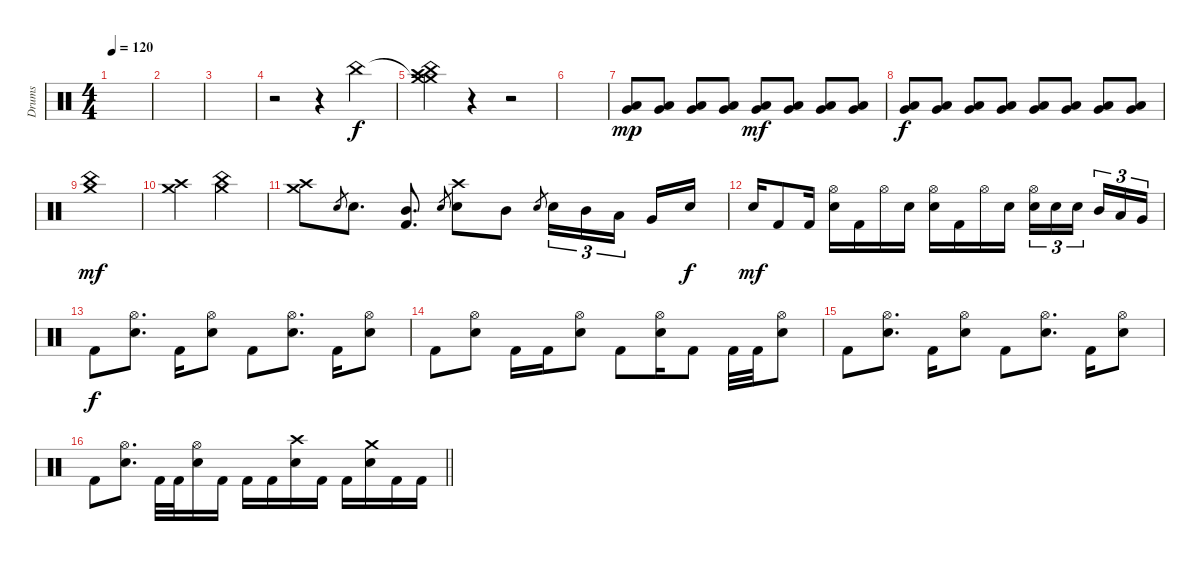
\track ("Drums" "Drums") {instrument percussion}
\staff {score}
\articulation defaults
\ts (4 4)
\tempo 120
\clef neutral
\ks c
|
|
|
r.2 r.4 "China (hit)".4 |
("Crash medium (hit)"{t} "Crash medium (hit)" "Crash high (hit)" "China (hit)").4 r.4 r.2 |
|
("Low Tom (hit)" "Very Low Tom (hit)").8{dy mp} ("Low Tom (hit)" "Very Low Tom (hit)").8 ("Low Tom (hit)" "Very Low Tom (hit)").8 ("Low Tom (hit)" "Very Low Tom (hit)").8 ("Low Tom (hit)" "Very Low Tom (hit)").8{dy mf} ("Low Tom (hit)" "Very Low Tom (hit)").8 ("Low Tom (hit)" "Very Low Tom (hit)").8 ("Low Tom (hit)" "Very Low Tom (hit)").8 |
("Low Tom (hit)" "Very Low Tom (hit)").8{dy f} ("Low Tom (hit)" "Very Low Tom (hit)").8 ("Low Tom (hit)" "Very Low Tom (hit)").8 ("Low Tom (hit)" "Very Low Tom (hit)").8 ("Low Tom (hit)" "Very Low Tom (hit)").8 ("Low Tom (hit)" "Very Low Tom (hit)").8 ("Low Tom (hit)" "Very Low Tom (hit)").8 ("Low Tom (hit)" "Very Low Tom (hit)").8 |
("Crash medium (hit)" "China (hit)").1{dy mf} |
("Crash medium (hit)" "Crash high (hit)").2 ("China (hit)" "Crash medium (hit)").2 |
("Crash high (hit)" "Crash medium (hit)").8 "Electric Snare (hit)".8{gr} "Electric Snare (hit)".8{d} ("Mid Tom (hit)" "Kick (hit) 2").8{d} "Electric Snare (hit)".8{gr} ("Crash high (hit)" "Electric Snare (hit)").8 "Mid Tom (hit)".8 "Electric Snare (hit)".8{gr} "Electric Snare (hit)".16{tu (3 2)} "Mid Tom (hit)".16{tu (3 2)} "Low Tom (hit)".16{tu (3 2) beam splitsecondary} "Very Low Tom (hit)".16 "Electric Snare (hit)".16{dy f} |
"Electric Snare (hit)".16{dy mf} "Kick (hit) 2".8 "Kick (hit) 2".16 ("Hi-Hat (open)" "Electric Snare (hit)").16 "Kick (hit) 2".16 "Hi-Hat (open)".16 "Electric Snare (hit)".16 ("Hi-Hat (open)" "Electric Snare (hit)").16 "Kick (hit) 2".16 "Hi-Hat (open)".16 "Electric Snare (hit)".16 ("Hi-Hat (open)" "Electric Snare (hit)").16{tu (3 2)} "Electric Snare (hit)".16{tu (3 2)} "Electric Snare (hit)".16{tu (3 2) beam splitsecondary} "Mid Tom (hit)".16{tu (3 2)} "Low Tom (hit)".16{tu (3 2)} "Very Low Tom (hit)".16{tu (3 2)} |
"Kick (hit) 2".8{dy f} ("Hi-Hat (open)" "Electric Snare (hit)").8{d} "Kick (hit) 2".16 ("Hi-Hat (open)" "Electric Snare (hit)").8 "Kick (hit) 2".8 ("Hi-Hat (open)" "Electric Snare (hit)").8{d} "Kick (hit) 2".16 ("Hi-Hat (open)" "Electric Snare (hit)").8 |
"Kick (hit) 2".8 ("Hi-Hat (open)" "Electric Snare (hit)").8 "Kick (hit) 2".16 "Kick (hit) 2".16 ("Hi-Hat (open)" "Electric Snare (hit)").8 "Kick (hit) 2".8 ("Hi-Hat (open)" "Electric Snare (hit)").16 "Kick (hit) 2".8 "Kick (hit) 2".32 "Kick (hit) 2".32 ("Hi-Hat (open)" "Electric Snare (hit)").8 |
"Kick (hit) 2".8 ("Hi-Hat (open)" "Electric Snare (hit)").8{d} "Kick (hit) 2".16 ("Hi-Hat (open)" "Electric Snare (hit)").8 "Kick (hit) 2".8 ("Hi-Hat (open)" "Electric Snare (hit)").8{d} "Kick (hit) 2".16 ("Hi-Hat (open)" "Electric Snare (hit)").8 |
\barLineRight lightlight "Kick (hit) 2".8
("Hi-Hat (open)" "Electric Snare (hit)").8{d} "Kick (hit) 2".32 "Kick (hit) 2".32 ("Hi-Hat (open)" "Electric Snare (hit)").16 "Kick (hit) 2".16 "Kick (hit) 2".16 "Kick (hit) 2".16 ("Crash high (hit)" "Electric Snare (hit)").16 "Kick (hit) 2".16 "Kick (hit) 2".16 ("Crash medium (hit)" "Electric Snare (hit)").16 "Kick (hit) 2".16 "Kick (hit) 2".16
